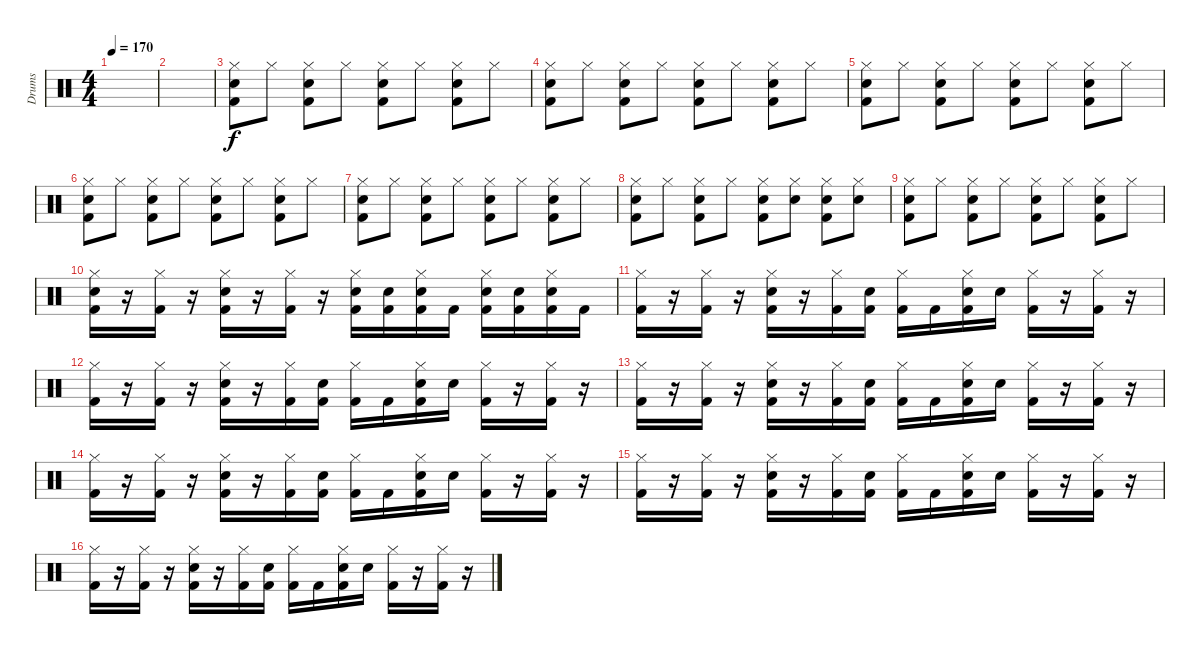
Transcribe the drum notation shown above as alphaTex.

\track ("Drums" "Drums") {instrument percussion}
\staff {score}
\articulation defaults
\ts (4 4)
\tempo 170
\clef neutral
\ks c
|
|
("Hi-Hat (closed)" "Electric Snare (hit)" "Kick (hit) 2").8 "Hi-Hat (closed)".8 ("Hi-Hat (closed)" "Electric Snare (hit)" "Kick (hit) 2").8 "Hi-Hat (closed)".8 ("Hi-Hat (closed)" "Electric Snare (hit)" "Kick (hit) 2").8 "Hi-Hat (closed)".8 ("Hi-Hat (closed)" "Electric Snare (hit)" "Kick (hit) 2").8 "Hi-Hat (closed)".8 |
("Hi-Hat (closed)" "Electric Snare (hit)" "Kick (hit) 2").8 "Hi-Hat (closed)".8 ("Hi-Hat (closed)" "Electric Snare (hit)" "Kick (hit) 2").8 "Hi-Hat (closed)".8 ("Hi-Hat (closed)" "Electric Snare (hit)" "Kick (hit) 2").8 "Hi-Hat (closed)".8 ("Hi-Hat (closed)" "Electric Snare (hit)" "Kick (hit) 2").8 "Hi-Hat (closed)".8 |
("Hi-Hat (closed)" "Electric Snare (hit)" "Kick (hit) 2").8 "Hi-Hat (closed)".8 ("Hi-Hat (closed)" "Electric Snare (hit)" "Kick (hit) 2").8 "Hi-Hat (closed)".8 ("Hi-Hat (closed)" "Electric Snare (hit)" "Kick (hit) 2").8 "Hi-Hat (closed)".8 ("Hi-Hat (closed)" "Electric Snare (hit)" "Kick (hit) 2").8 "Hi-Hat (closed)".8 |
("Hi-Hat (closed)" "Electric Snare (hit)" "Kick (hit) 2").8 "Hi-Hat (closed)".8 ("Hi-Hat (closed)" "Electric Snare (hit)" "Kick (hit) 2").8 "Hi-Hat (closed)".8 ("Hi-Hat (closed)" "Electric Snare (hit)" "Kick (hit) 2").8 "Hi-Hat (closed)".8 ("Hi-Hat (closed)" "Electric Snare (hit)" "Kick (hit) 2").8 "Hi-Hat (closed)".8 |
("Hi-Hat (closed)" "Electric Snare (hit)" "Kick (hit) 2").8 "Hi-Hat (closed)".8 ("Hi-Hat (closed)" "Electric Snare (hit)" "Kick (hit) 2").8 "Hi-Hat (closed)".8 ("Hi-Hat (closed)" "Electric Snare (hit)" "Kick (hit) 2").8 "Hi-Hat (closed)".8 ("Hi-Hat (closed)" "Electric Snare (hit)" "Kick (hit) 2").8 "Hi-Hat (closed)".8 |
("Hi-Hat (closed)" "Electric Snare (hit)" "Kick (hit) 2").8 "Hi-Hat (closed)".8 ("Hi-Hat (closed)" "Electric Snare (hit)" "Kick (hit) 2").8 "Hi-Hat (closed)".8 ("Hi-Hat (closed)" "Electric Snare (hit)" "Kick (hit) 2").8 ("Hi-Hat (closed)" "Electric Snare (hit)").8 ("Hi-Hat (closed)" "Electric Snare (hit)" "Kick (hit) 2").8 ("Hi-Hat (closed)" "Electric Snare (hit)").8 |
("Hi-Hat (closed)" "Electric Snare (hit)" "Kick (hit) 2").8 "Hi-Hat (closed)".8 ("Hi-Hat (closed)" "Electric Snare (hit)" "Kick (hit) 2").8 "Hi-Hat (closed)".8 ("Hi-Hat (closed)" "Electric Snare (hit)" "Kick (hit) 2").8 "Hi-Hat (closed)".8 ("Hi-Hat (closed)" "Electric Snare (hit)" "Kick (hit) 2").8 "Hi-Hat (closed)".8 |
("Kick (hit) 2" "Hi-Hat (closed)" "Electric Snare (hit)").16 r.16 ("Kick (hit) 2" "Hi-Hat (closed)").16 r.16 ("Kick (hit) 2" "Hi-Hat (closed)" "Electric Snare (hit)").16 r.16 ("Kick (hit) 2" "Hi-Hat (closed)").16 r.16 ("Kick (hit) 2" "Hi-Hat (closed)" "Electric Snare (hit)").16 ("Kick (hit) 2" "Electric Snare (hit)").16 ("Kick (hit) 2" "Hi-Hat (closed)" "Electric Snare (hit)").16 "Kick (hit) 2".16 ("Kick (hit) 2" "Hi-Hat (closed)" "Electric Snare (hit)").16 ("Kick (hit) 2" "Electric Snare (hit)").16 ("Kick (hit) 2" "Hi-Hat (closed)" "Electric Snare (hit)").16 "Kick (hit) 2".16 |
("Hi-Hat (closed)" "Kick (hit) 2").16 r.16 ("Hi-Hat (closed)" "Kick (hit) 2").16 r.16 ("Hi-Hat (closed)" "Electric Snare (hit)" "Kick (hit) 2").16 r.16 ("Hi-Hat (closed)" "Kick (hit) 2").16 ("Kick (hit) 2" "Electric Snare (hit)").16 ("Hi-Hat (closed)" "Kick (hit) 2").16 "Kick (hit) 2".16 ("Hi-Hat (closed)" "Kick (hit) 2" "Electric Snare (hit)").16 "Electric Snare (hit)".16 ("Hi-Hat (closed)" "Kick (hit) 2").16 r.16 ("Hi-Hat (closed)" "Kick (hit) 2").16 r.16 |
("Hi-Hat (closed)" "Kick (hit) 2").16 r.16 ("Hi-Hat (closed)" "Kick (hit) 2").16 r.16 ("Hi-Hat (closed)" "Electric Snare (hit)" "Kick (hit) 2").16 r.16 ("Hi-Hat (closed)" "Kick (hit) 2").16 ("Kick (hit) 2" "Electric Snare (hit)").16 ("Hi-Hat (closed)" "Kick (hit) 2").16 "Kick (hit) 2".16 ("Hi-Hat (closed)" "Kick (hit) 2" "Electric Snare (hit)").16 "Electric Snare (hit)".16 ("Hi-Hat (closed)" "Kick (hit) 2").16 r.16 ("Hi-Hat (closed)" "Kick (hit) 2").16 r.16 |
("Hi-Hat (closed)" "Kick (hit) 2").16 r.16 ("Hi-Hat (closed)" "Kick (hit) 2").16 r.16 ("Hi-Hat (closed)" "Electric Snare (hit)" "Kick (hit) 2").16 r.16 ("Hi-Hat (closed)" "Kick (hit) 2").16 ("Kick (hit) 2" "Electric Snare (hit)").16 ("Hi-Hat (closed)" "Kick (hit) 2").16 "Kick (hit) 2".16 ("Hi-Hat (closed)" "Kick (hit) 2" "Electric Snare (hit)").16 "Electric Snare (hit)".16 ("Hi-Hat (closed)" "Kick (hit) 2").16 r.16 ("Hi-Hat (closed)" "Kick (hit) 2").16 r.16 |
("Hi-Hat (closed)" "Kick (hit) 2").16 r.16 ("Hi-Hat (closed)" "Kick (hit) 2").16 r.16 ("Hi-Hat (closed)" "Electric Snare (hit)" "Kick (hit) 2").16 r.16 ("Hi-Hat (closed)" "Kick (hit) 2").16 ("Kick (hit) 2" "Electric Snare (hit)").16 ("Hi-Hat (closed)" "Kick (hit) 2").16 "Kick (hit) 2".16 ("Hi-Hat (closed)" "Kick (hit) 2" "Electric Snare (hit)").16 "Electric Snare (hit)".16 ("Hi-Hat (closed)" "Kick (hit) 2").16 r.16 ("Hi-Hat (closed)" "Kick (hit) 2").16 r.16 |
("Hi-Hat (closed)" "Kick (hit) 2").16 r.16 ("Hi-Hat (closed)" "Kick (hit) 2").16 r.16 ("Hi-Hat (closed)" "Electric Snare (hit)" "Kick (hit) 2").16 r.16 ("Hi-Hat (closed)" "Kick (hit) 2").16 ("Kick (hit) 2" "Electric Snare (hit)").16 ("Hi-Hat (closed)" "Kick (hit) 2").16 "Kick (hit) 2".16 ("Hi-Hat (closed)" "Kick (hit) 2" "Electric Snare (hit)").16 "Electric Snare (hit)".16 ("Hi-Hat (closed)" "Kick (hit) 2").16 r.16 ("Hi-Hat (closed)" "Kick (hit) 2").16 r.16 |
("Hi-Hat (closed)" "Kick (hit) 2").16 r.16 ("Hi-Hat (closed)" "Kick (hit) 2").16 r.16 ("Hi-Hat (closed)" "Electric Snare (hit)" "Kick (hit) 2").16 r.16 ("Hi-Hat (closed)" "Kick (hit) 2").16 ("Kick (hit) 2" "Electric Snare (hit)").16 ("Hi-Hat (closed)" "Kick (hit) 2").16 "Kick (hit) 2".16 ("Hi-Hat (closed)" "Kick (hit) 2" "Electric Snare (hit)").16 "Electric Snare (hit)".16 ("Hi-Hat (closed)" "Kick (hit) 2").16 r.16 ("Hi-Hat (closed)" "Kick (hit) 2").16 r.16
